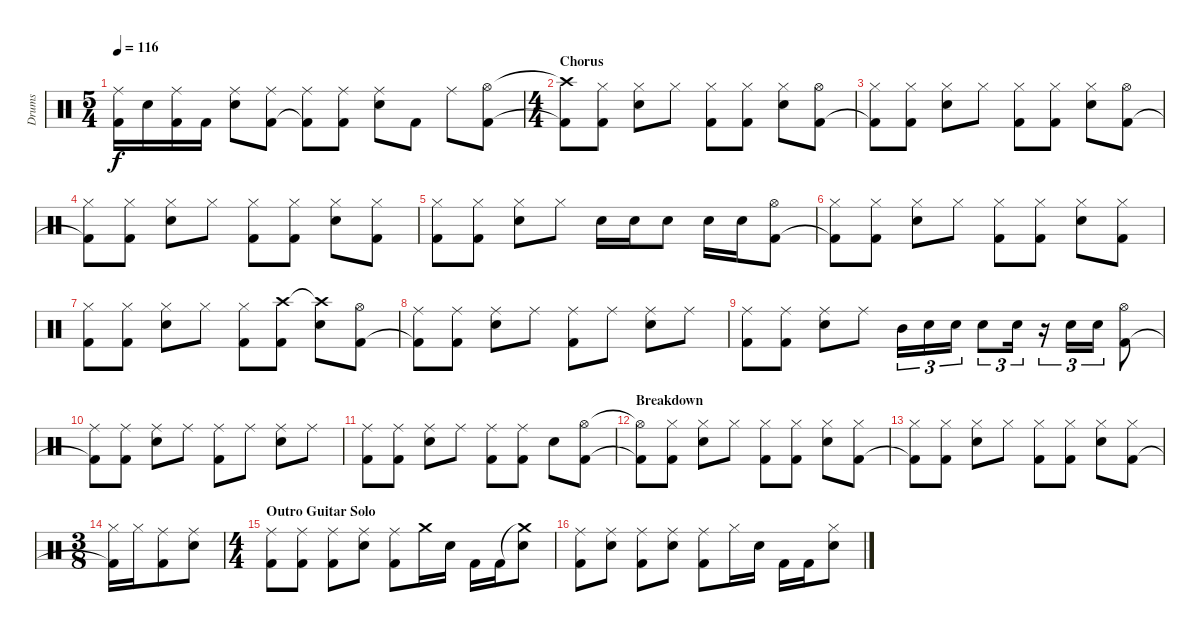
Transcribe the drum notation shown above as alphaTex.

\track ("Drums" "Drums") {instrument percussion}
\staff {score}
\articulation defaults
\ts (5 4)
\tempo 116
\clef neutral
\ks c
("Ride (middle)" "Kick (hit) 2"{t}).16{dy f} "Snare (hit) 2".16 ("Ride (middle)" "Kick (hit) 2").16 "Kick (hit) 2".16 ("Ride (middle)" "Snare (hit) 2").8 ("Ride (middle)" "Kick (hit) 2").8 ("Ride (middle)" "Kick (hit) 2"{t}).8 ("Ride (middle)" "Kick (hit) 2").8 ("Ride (middle)" "Snare (hit) 2").8 "Kick (hit) 2".8 "Ride (middle)".8 ("Hi-Hat (open)" "Kick (hit) 2").8 |
\ts (4 4)
\section ("" "Chorus")
("Crash high (hit)"{t} "Kick (hit) 2"{t}).8 ("Hi-Hat (closed)" "Kick (hit) 2").8 ("Hi-Hat (closed)" "Snare (hit) 2").8 "Hi-Hat (closed)".8 ("Hi-Hat (closed)" "Kick (hit) 2").8 ("Hi-Hat (closed)" "Kick (hit) 2").8 ("Hi-Hat (closed)" "Snare (hit) 2").8 ("Hi-Hat (open)" "Kick (hit) 2").8 |
("Hi-Hat (closed)" "Kick (hit) 2"{t}).8 ("Hi-Hat (closed)" "Kick (hit) 2").8 ("Hi-Hat (closed)" "Snare (hit) 2").8 "Hi-Hat (closed)".8 ("Hi-Hat (closed)" "Kick (hit) 2").8 ("Hi-Hat (closed)" "Kick (hit) 2").8 ("Hi-Hat (closed)" "Snare (hit) 2").8 ("Hi-Hat (open)" "Kick (hit) 2").8 |
("Hi-Hat (closed)" "Kick (hit) 2"{t}).8 ("Hi-Hat (closed)" "Kick (hit) 2").8 ("Hi-Hat (closed)" "Snare (hit) 2").8 "Hi-Hat (closed)".8 ("Hi-Hat (closed)" "Kick (hit) 2").8 ("Hi-Hat (closed)" "Kick (hit) 2").8 ("Hi-Hat (closed)" "Snare (hit) 2").8 ("Hi-Hat (closed)" "Kick (hit) 2").8 |
("Hi-Hat (closed)" "Kick (hit) 2").8 ("Hi-Hat (closed)" "Kick (hit) 2").8 ("Hi-Hat (closed)" "Snare (hit) 2").8 "Hi-Hat (closed)".8 "Snare (hit) 2".16 "Snare (hit) 2".16 "Snare (hit) 2".8 "Snare (hit) 2".16 "Snare (hit) 2".16 ("Hi-Hat (open)" "Kick (hit) 2").8 |
("Hi-Hat (closed)" "Kick (hit) 2"{t}).8 ("Hi-Hat (closed)" "Kick (hit) 2").8 ("Hi-Hat (closed)" "Snare (hit) 2").8 "Hi-Hat (closed)".8 ("Hi-Hat (closed)" "Kick (hit) 2").8 ("Hi-Hat (closed)" "Kick (hit) 2").8 ("Hi-Hat (closed)" "Snare (hit) 2").8 ("Hi-Hat (closed)" "Kick (hit) 2").8 |
("Hi-Hat (closed)" "Kick (hit) 2").8 ("Hi-Hat (closed)" "Kick (hit) 2").8 ("Hi-Hat (closed)" "Snare (hit) 2").8 "Hi-Hat (closed)".8 ("Hi-Hat (closed)" "Kick (hit) 2").8 ("Crash high (hit)" "Kick (hit) 2").8 ("Crash high (hit)"{t} "Snare (hit) 2").8 ("Hi-Hat (open)" "Kick (hit) 2").8 |
("Ride (middle)" "Kick (hit) 2"{t}).8 ("Ride (middle)" "Kick (hit) 2").8 ("Ride (middle)" "Snare (hit) 2").8 "Ride (middle)".8 ("Ride (middle)" "Kick (hit) 2").8 "Ride (middle)".8 ("Ride (middle)" "Snare (hit) 2").8 "Ride (middle)".8 |
("Ride (middle)" "Kick (hit) 2").8 ("Ride (middle)" "Kick (hit) 2").8 ("Ride (middle)" "Snare (hit) 2").8 "Ride (middle)".8 "Mid Tom (hit)".16{tu (3 2)} "Snare (hit) 2".16{tu (3 2)} "Snare (hit) 2".16{tu (3 2)} "Snare (hit) 2".8{tu (3 2)} "Snare (hit) 2".16{tu (3 2)} r.16{tu (3 2)} "Snare (hit) 2".16{tu (3 2)} "Snare (hit) 2".16{tu (3 2)} ("Hi-Hat (open)" "Kick (hit) 2").8 |
("Ride (middle)" "Kick (hit) 2"{t}).8 ("Ride (middle)" "Kick (hit) 2").8 ("Ride (middle)" "Snare (hit) 2").8 "Ride (middle)".8 ("Ride (middle)" "Kick (hit) 2").8 "Ride (middle)".8 ("Ride (middle)" "Snare (hit) 2").8 "Ride (middle)".8 |
("Ride (middle)" "Kick (hit) 2").8 ("Ride (middle)" "Kick (hit) 2").8 ("Ride (middle)" "Snare (hit) 2").8 "Ride (middle)".8 ("Ride (middle)" "Kick (hit) 2").8 ("Ride (middle)" "Kick (hit) 2").8 "Snare (hit) 2".8 ("Hi-Hat (open)" "Kick (hit) 2").8 |
\section ("" "Breakdown")
("Hi-Hat (open)"{t} "Kick (hit) 2"{t}).8 ("Hi-Hat (closed)" "Kick (hit) 2").8 ("Hi-Hat (closed)" "Snare (hit) 2").8 "Hi-Hat (closed)".8 ("Hi-Hat (closed)" "Kick (hit) 2").8 ("Hi-Hat (closed)" "Kick (hit) 2").8 ("Hi-Hat (closed)" "Snare (hit) 2").8 ("Hi-Hat (closed)" "Kick (hit) 2").8 |
("Hi-Hat (closed)" "Kick (hit) 2"{t}).8 ("Hi-Hat (closed)" "Kick (hit) 2").8 ("Hi-Hat (closed)" "Snare (hit) 2").8 "Hi-Hat (closed)".8 ("Hi-Hat (closed)" "Kick (hit) 2").8 ("Hi-Hat (closed)" "Kick (hit) 2").8 ("Hi-Hat (closed)" "Snare (hit) 2").8 ("Hi-Hat (closed)" "Kick (hit) 2").8 |
\ts (3 8)
("Hi-Hat (closed)" "Kick (hit) 2"{t}).16 "Hi-Hat (closed)".16 ("Ride (middle)" "Kick (hit) 2").8 ("Ride (middle)" "Snare (hit) 2").8 |
\ts (4 4)
\section ("" "Outro Guitar Solo")
("Ride (middle)" "Kick (hit) 2").8 ("Ride (middle)" "Kick (hit) 2").8 ("Ride (middle)" "Kick (hit) 2").8 ("Ride (middle)" "Snare (hit) 2").8 ("Ride (middle)" "Kick (hit) 2").8 "Crash medium (hit)".16 "Snare (hit) 2".16 "Kick (hit) 2".16 "Kick (hit) 2".16 ("Crash medium (hit)"{t} "Snare (hit) 2").8 |
("Ride (middle)" "Kick (hit) 2").8 ("Ride (middle)" "Snare (hit) 2").8 ("Ride (middle)" "Kick (hit) 2").8 ("Ride (middle)" "Snare (hit) 2").8 ("Ride (middle)" "Kick (hit) 2").8 "Hi-Hat (closed)".16 "Snare (hit) 2".16 "Kick (hit) 2".16 "Kick (hit) 2".16 ("Hi-Hat (closed)" "Snare (hit) 2").8
